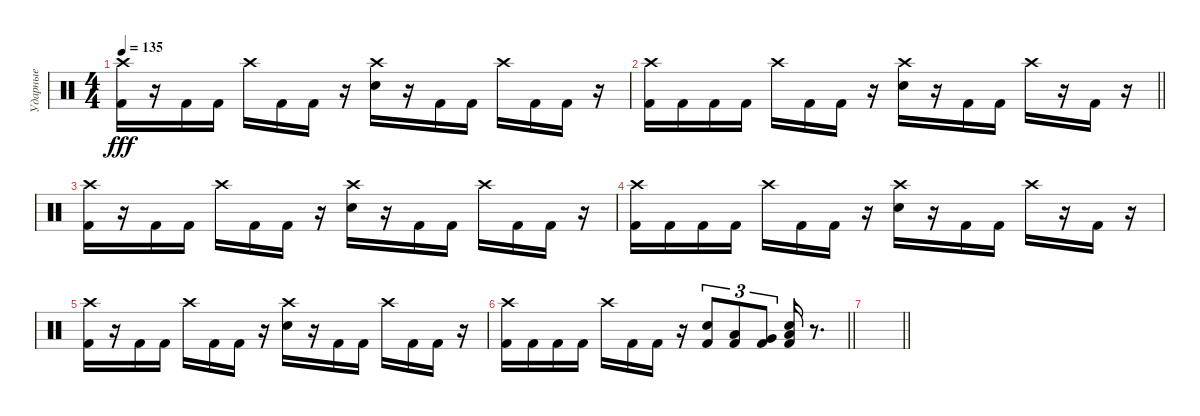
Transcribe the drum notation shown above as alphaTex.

\track ("Ударные" "Ударные") {instrument percussion}
\staff {score}
\articulation defaults
\ts (4 4)
\tempo 135
\clef neutral
\ks c
("Kick (hit) 2" "Crash high (hit)").16{dy fff} r.16 "Kick (hit) 2".16 "Kick (hit) 2".16 "Crash high (hit)".16 "Kick (hit) 2".16 "Kick (hit) 2".16 r.16 ("Snare (hit) 2" "Crash high (hit)").16 r.16 "Kick (hit) 2".16 "Kick (hit) 2".16 "Crash high (hit)".16 "Kick (hit) 2".16 "Kick (hit) 2".16 r.16 |
\barLineRight lightlight
("Kick (hit) 2" "Crash high (hit)").16 "Kick (hit) 2".16 "Kick (hit) 2".16 "Kick (hit) 2".16 "Crash high (hit)".16 "Kick (hit) 2".16 "Kick (hit) 2".16 r.16 ("Snare (hit) 2" "Crash high (hit)").16 r.16 "Kick (hit) 2".16 "Kick (hit) 2".16 "Crash high (hit)".16 r.16 "Kick (hit) 2".16 r.16 |
("Kick (hit) 2" "Crash high (hit)").16 r.16 "Kick (hit) 2".16 "Kick (hit) 2".16 "Crash high (hit)".16 "Kick (hit) 2".16 "Kick (hit) 2".16 r.16 ("Snare (hit) 2" "Crash high (hit)").16 r.16 "Kick (hit) 2".16 "Kick (hit) 2".16 "Crash high (hit)".16 "Kick (hit) 2".16 "Kick (hit) 2".16 r.16 |
("Kick (hit) 2" "Crash high (hit)").16 "Kick (hit) 2".16 "Kick (hit) 2".16 "Kick (hit) 2".16 "Crash high (hit)".16 "Kick (hit) 2".16 "Kick (hit) 2".16 r.16 ("Snare (hit) 2" "Crash high (hit)").16 r.16 "Kick (hit) 2".16 "Kick (hit) 2".16 "Crash high (hit)".16 r.16 "Kick (hit) 2".16 r.16 |
("Kick (hit) 2" "Crash high (hit)").16 r.16 "Kick (hit) 2".16 "Kick (hit) 2".16 "Crash high (hit)".16 "Kick (hit) 2".16 "Kick (hit) 2".16 r.16 ("Snare (hit) 2" "Crash high (hit)").16 r.16 "Kick (hit) 2".16 "Kick (hit) 2".16 "Crash high (hit)".16 "Kick (hit) 2".16 "Kick (hit) 2".16 r.16 |
\barLineRight lightlight
("Kick (hit) 2" "Crash high (hit)").16 "Kick (hit) 2".16 "Kick (hit) 2".16 "Kick (hit) 2".16 "Crash high (hit)".16 "Kick (hit) 2".16 "Kick (hit) 2".16 r.16 ("Kick (hit) 2" "Snare (hit) 2").8{tu (3 2)} ("Kick (hit) 2" "Low Tom (hit)").8{tu (3 2)} ("Kick (hit) 2" "Very Low Tom (hit)").8{tu (3 2)} ("Kick (hit) 2" "Snare (hit) 2" "Low Floor Tom (hit)").16 r.8{d} |
\barLineRight lightlight
